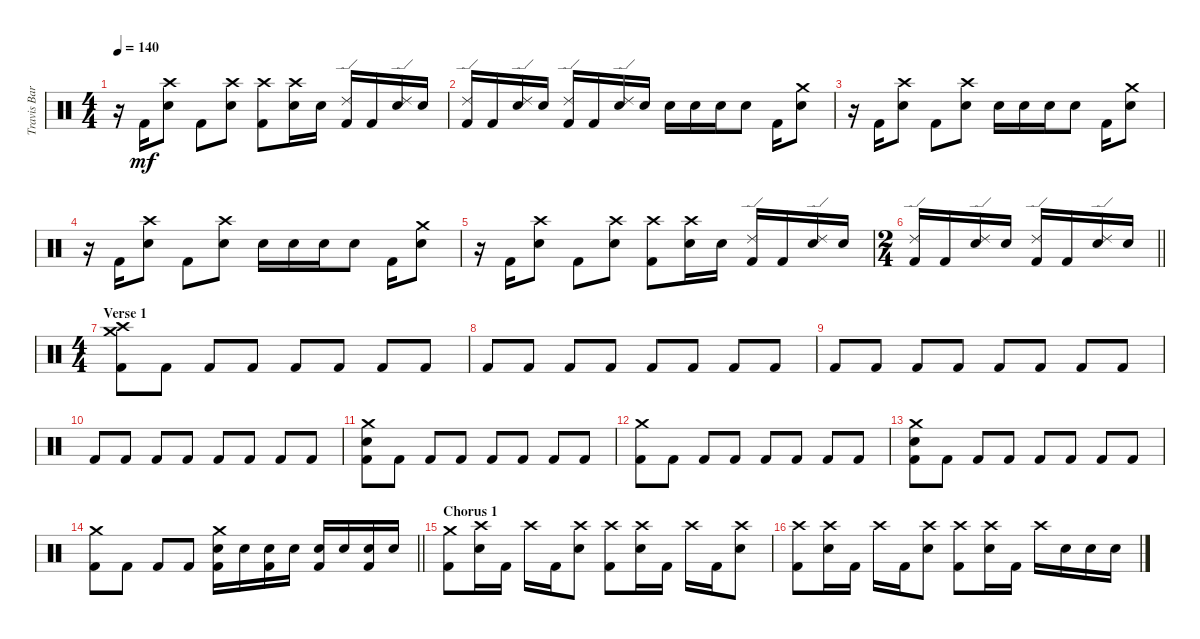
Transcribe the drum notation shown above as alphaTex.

\track ("Travis Barker" "Travis Bar") {instrument percussion}
\staff {score}
\articulation defaults
\ts (4 4)
\tempo 140
\clef neutral
\ks c
r.16{dy mf} "Kick (hit) 2".16 ("Crash high (hit)" "Electric Snare (hit)").8 "Kick (hit) 2".8 ("Crash high (hit)" "Electric Snare (hit)").8 ("Crash high (hit)" "Kick (hit) 2").8 ("Crash high (hit)" "Electric Snare (hit)").16 "Electric Snare (hit)".16 ("Ride (edge) 2" "Kick (hit) 2").16 "Kick (hit) 2".16 ("Ride (edge) 2" "Electric Snare (hit)").16 "Electric Snare (hit)".16 |
("Ride (edge) 2" "Kick (hit) 2").16 "Kick (hit) 2".16 ("Ride (edge) 2" "Electric Snare (hit)").16 "Electric Snare (hit)".16 ("Ride (edge) 2" "Kick (hit) 2").16 "Kick (hit) 2".16 ("Ride (edge) 2" "Electric Snare (hit)").16 "Electric Snare (hit)".16 "Electric Snare (hit)".16 "Electric Snare (hit)".16 "Electric Snare (hit)".16 "Electric Snare (hit)".8 "Kick (hit) 2".16 ("Crash medium (hit)" "Electric Snare (hit)").8 |
r.16 "Kick (hit) 2".16 ("Crash high (hit)" "Electric Snare (hit)").8 "Kick (hit) 2".8 ("Crash high (hit)" "Electric Snare (hit)").8 "Electric Snare (hit)".16 "Electric Snare (hit)".16 "Electric Snare (hit)".16 "Electric Snare (hit)".8 "Kick (hit) 2".16 ("Crash medium (hit)" "Electric Snare (hit)").8 |
r.16 "Kick (hit) 2".16 ("Crash high (hit)" "Electric Snare (hit)").8 "Kick (hit) 2".8 ("Crash high (hit)" "Electric Snare (hit)").8 "Electric Snare (hit)".16 "Electric Snare (hit)".16 "Electric Snare (hit)".16 "Electric Snare (hit)".8 "Kick (hit) 2".16 ("Crash medium (hit)" "Electric Snare (hit)").8 |
r.16 "Kick (hit) 2".16 ("Crash high (hit)" "Electric Snare (hit)").8 "Kick (hit) 2".8 ("Crash high (hit)" "Electric Snare (hit)").8 ("Crash high (hit)" "Kick (hit) 2").8 ("Crash high (hit)" "Electric Snare (hit)").16 "Electric Snare (hit)".16 ("Ride (edge) 2" "Kick (hit) 2").16 "Kick (hit) 2".16 ("Ride (edge) 2" "Electric Snare (hit)").16 "Electric Snare (hit)".16 |
\ts (2 4)
\barLineRight lightlight
("Ride (edge) 2" "Kick (hit) 2").16 "Kick (hit) 2".16 ("Ride (edge) 2" "Electric Snare (hit)").16 "Electric Snare (hit)".16 ("Ride (edge) 2" "Kick (hit) 2").16 "Kick (hit) 2".16 ("Ride (edge) 2" "Electric Snare (hit)").16 "Electric Snare (hit)".16 |
\ts (4 4)
\section ("" "Verse 1")
("Crash medium (hit)" "Crash high (hit)" "Kick (hit) 2").8 "Kick (hit) 2".8 "Kick (hit) 2".8 "Kick (hit) 2".8 "Kick (hit) 2".8 "Kick (hit) 2".8 "Kick (hit) 2".8 "Kick (hit) 2".8 |
"Kick (hit) 2".8 "Kick (hit) 2".8 "Kick (hit) 2".8 "Kick (hit) 2".8 "Kick (hit) 2".8 "Kick (hit) 2".8 "Kick (hit) 2".8 "Kick (hit) 2".8 |
"Kick (hit) 2".8 "Kick (hit) 2".8 "Kick (hit) 2".8 "Kick (hit) 2".8 "Kick (hit) 2".8 "Kick (hit) 2".8 "Kick (hit) 2".8 "Kick (hit) 2".8 |
"Kick (hit) 2".8 "Kick (hit) 2".8 "Kick (hit) 2".8 "Kick (hit) 2".8 "Kick (hit) 2".8 "Kick (hit) 2".8 "Kick (hit) 2".8 "Kick (hit) 2".8 |
("Crash medium (hit)" "Electric Snare (hit)" "Kick (hit) 2").8 "Kick (hit) 2".8 "Kick (hit) 2".8 "Kick (hit) 2".8 "Kick (hit) 2".8 "Kick (hit) 2".8 "Kick (hit) 2".8 "Kick (hit) 2".8 |
("Crash medium (hit)" "Kick (hit) 2").8 "Kick (hit) 2".8 "Kick (hit) 2".8 "Kick (hit) 2".8 "Kick (hit) 2".8 "Kick (hit) 2".8 "Kick (hit) 2".8 "Kick (hit) 2".8 |
("Crash medium (hit)" "Electric Snare (hit)" "Kick (hit) 2").8 "Kick (hit) 2".8 "Kick (hit) 2".8 "Kick (hit) 2".8 "Kick (hit) 2".8 "Kick (hit) 2".8 "Kick (hit) 2".8 "Kick (hit) 2".8 |
\barLineRight lightlight
("Crash medium (hit)" "Kick (hit) 2").8 "Kick (hit) 2".8 "Kick (hit) 2".8 "Kick (hit) 2".8 ("Crash medium (hit)" "Electric Snare (hit)" "Kick (hit) 2").16 "Electric Snare (hit)".16 ("Electric Snare (hit)" "Kick (hit) 2").16 "Electric Snare (hit)".16 ("Electric Snare (hit)" "Kick (hit) 2").16 "Electric Snare (hit)".16 ("Electric Snare (hit)" "Kick (hit) 2").16 "Electric Snare (hit)".16 |
\section ("" "Chorus 1")
("Crash medium (hit)" "Kick (hit) 2").8 ("Crash high (hit)" "Electric Snare (hit)").16 "Kick (hit) 2".16 "Crash high (hit)".16 "Kick (hit) 2".16 ("Crash high (hit)" "Electric Snare (hit)").8 ("Crash high (hit)" "Kick (hit) 2").8 ("Crash high (hit)" "Electric Snare (hit)").16 "Kick (hit) 2".16 "Crash high (hit)".16 "Kick (hit) 2".16 ("Crash high (hit)" "Electric Snare (hit)").8 |
("Crash high (hit)" "Kick (hit) 2").8 ("Crash high (hit)" "Electric Snare (hit)").16 "Kick (hit) 2".16 "Crash high (hit)".16 "Kick (hit) 2".16 ("Crash high (hit)" "Electric Snare (hit)").8 ("Crash high (hit)" "Kick (hit) 2").8 ("Crash high (hit)" "Electric Snare (hit)").16 "Kick (hit) 2".16 "Crash high (hit)".16 "Electric Snare (hit)".16 "Electric Snare (hit)".16 "Electric Snare (hit)".16
